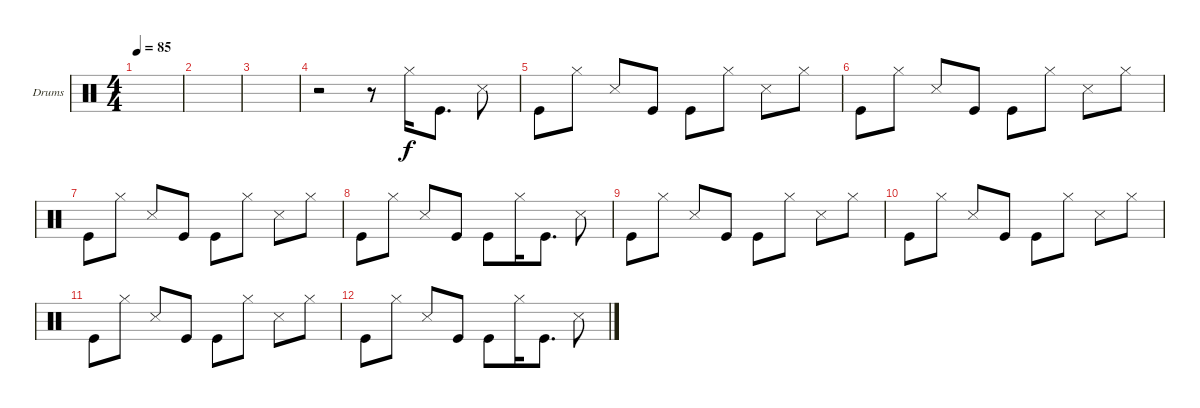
\defaultSystemsLayout 4
\bracketExtendMode groupsimilarinstruments
\firstSystemTrackNameOrientation horizontal
\otherSystemsTrackNameOrientation horizontal
\track ("Drumkit" "Drums") {instrument percussion}
\staff {score}
\articulation defaults
\ts (4 4)
\tempo 85
\clef neutral
\scale
0.474178
\ks c
|
\scale
0.262911 |
\scale
0.262911 |
r.2 r.8 "Hi-Hat (closed)".16 "Kick (hit)".8{d} "Snare (side stick) 3".8 |
"Kick (hit)".8 "Hi-Hat (closed)".8 "Snare (side stick) 3".8 "Kick (hit)".8 "Kick (hit)".8 "Hi-Hat (closed)".8 "Snare (side stick) 3".8 "Hi-Hat (closed)".8 |
"Kick (hit)".8 "Hi-Hat (closed)".8 "Snare (side stick) 3".8 "Kick (hit)".8 "Kick (hit)".8 "Hi-Hat (closed)".8 "Snare (side stick) 3".8 "Hi-Hat (closed)".8 |
"Kick (hit)".8 "Hi-Hat (closed)".8 "Snare (side stick) 3".8 "Kick (hit)".8 "Kick (hit)".8 "Hi-Hat (closed)".8 "Snare (side stick) 3".8 "Hi-Hat (closed)".8 |
"Kick (hit)".8 "Hi-Hat (closed)".8 "Snare (side stick) 3".8 "Kick (hit)".8 "Kick (hit)".8 "Hi-Hat (closed)".16 "Kick (hit)".8{d} "Snare (side stick) 3".8 |
"Kick (hit)".8 "Hi-Hat (closed)".8 "Snare (side stick) 3".8 "Kick (hit)".8 "Kick (hit)".8 "Hi-Hat (closed)".8 "Snare (side stick) 3".8 "Hi-Hat (closed)".8 |
"Kick (hit)".8 "Hi-Hat (closed)".8 "Snare (side stick) 3".8 "Kick (hit)".8 "Kick (hit)".8 "Hi-Hat (closed)".8 "Snare (side stick) 3".8 "Hi-Hat (closed)".8 |
"Kick (hit)".8 "Hi-Hat (closed)".8 "Snare (side stick) 3".8 "Kick (hit)".8 "Kick (hit)".8 "Hi-Hat (closed)".8 "Snare (side stick) 3".8 "Hi-Hat (closed)".8 |
"Kick (hit)".8 "Hi-Hat (closed)".8 "Snare (side stick) 3".8 "Kick (hit)".8 "Kick (hit)".8 "Hi-Hat (closed)".16 "Kick (hit)".8{d} "Snare (side stick) 3".8
